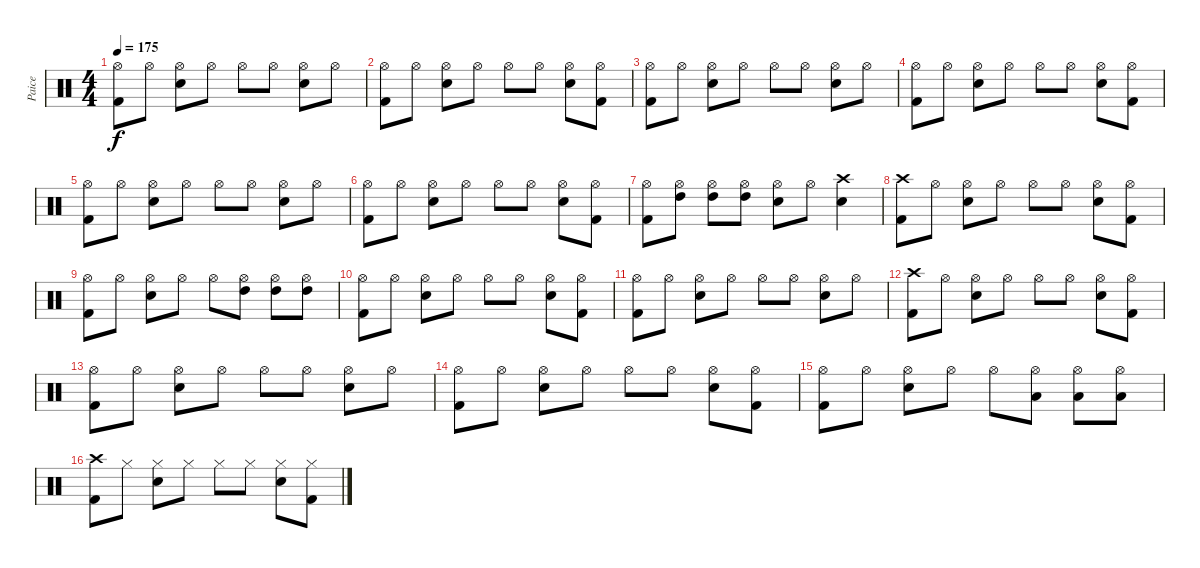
\track ("Paice" "Paice") {instrument percussion}
\staff {score}
\articulation defaults
\ts (4 4)
\tempo 175
\clef neutral
\ks c
("Hi-Hat (open)" "Kick (hit) 2").8{dy f} "Hi-Hat (open)".8 ("Hi-Hat (open)" "Electric Snare (hit)").8 "Hi-Hat (open)".8 "Hi-Hat (open)".8 "Hi-Hat (open)".8 ("Hi-Hat (open)" "Electric Snare (hit)").8 "Hi-Hat (open)".8 |
("Hi-Hat (open)" "Kick (hit) 2").8 "Hi-Hat (open)".8 ("Hi-Hat (open)" "Electric Snare (hit)").8 "Hi-Hat (open)".8 "Hi-Hat (open)".8 "Hi-Hat (open)".8 ("Hi-Hat (open)" "Electric Snare (hit)").8 ("Hi-Hat (open)" "Kick (hit) 2").8 |
("Hi-Hat (open)" "Kick (hit) 2").8 "Hi-Hat (open)".8 ("Hi-Hat (open)" "Electric Snare (hit)").8 "Hi-Hat (open)".8 "Hi-Hat (open)".8 "Hi-Hat (open)".8 ("Hi-Hat (open)" "Electric Snare (hit)").8 "Hi-Hat (open)".8 |
("Hi-Hat (open)" "Kick (hit) 2").8 "Hi-Hat (open)".8 ("Hi-Hat (open)" "Electric Snare (hit)").8 "Hi-Hat (open)".8 "Hi-Hat (open)".8 "Hi-Hat (open)".8 ("Hi-Hat (open)" "Electric Snare (hit)").8 ("Hi-Hat (open)" "Kick (hit) 2").8 |
("Hi-Hat (open)" "Kick (hit) 2").8 "Hi-Hat (open)".8 ("Hi-Hat (open)" "Electric Snare (hit)").8 "Hi-Hat (open)".8 "Hi-Hat (open)".8 "Hi-Hat (open)".8 ("Hi-Hat (open)" "Electric Snare (hit)").8 "Hi-Hat (open)".8 |
("Hi-Hat (open)" "Kick (hit) 2").8 "Hi-Hat (open)".8 ("Hi-Hat (open)" "Electric Snare (hit)").8 "Hi-Hat (open)".8 "Hi-Hat (open)".8 "Hi-Hat (open)".8 ("Hi-Hat (open)" "Electric Snare (hit)").8 ("Hi-Hat (open)" "Kick (hit) 2").8 |
("Hi-Hat (open)" "Kick (hit) 2").8 ("Hi-Hat (open)" "High Tom (hit)").8 ("Hi-Hat (open)" "High Tom (hit)").8 ("Hi-Hat (open)" "High Tom (hit)").8 ("Hi-Hat (open)" "Electric Snare (hit)").8 "Hi-Hat (open)".8 ("Crash high (hit)" "Electric Snare (hit)").4 |
("Crash high (hit)" "Kick (hit) 2").8 "Hi-Hat (open)".8 ("Hi-Hat (open)" "Electric Snare (hit)").8 "Hi-Hat (open)".8 "Hi-Hat (open)".8 "Hi-Hat (open)".8 ("Hi-Hat (open)" "Electric Snare (hit)").8 ("Hi-Hat (open)" "Kick (hit) 2").8 |
("Hi-Hat (open)" "Kick (hit) 2").8 "Hi-Hat (open)".8 ("Hi-Hat (open)" "Electric Snare (hit)").8 "Hi-Hat (open)".8 "Hi-Hat (open)".8 ("Hi-Hat (open)" "High Tom (hit)").8 ("Hi-Hat (open)" "High Tom (hit)").8 ("Hi-Hat (open)" "High Tom (hit)").8 |
("Hi-Hat (open)" "Kick (hit) 2").8 "Hi-Hat (open)".8 ("Hi-Hat (open)" "Electric Snare (hit)").8 "Hi-Hat (open)".8 "Hi-Hat (open)".8 "Hi-Hat (open)".8 ("Hi-Hat (open)" "Electric Snare (hit)").8 ("Hi-Hat (open)" "Kick (hit) 2").8 |
("Hi-Hat (open)" "Kick (hit) 2").8 "Hi-Hat (open)".8 ("Hi-Hat (open)" "Electric Snare (hit)").8 "Hi-Hat (open)".8 "Hi-Hat (open)".8 "Hi-Hat (open)".8 ("Hi-Hat (open)" "Electric Snare (hit)").8 "Hi-Hat (open)".8 |
("Crash high (hit)" "Kick (hit) 2").8 "Hi-Hat (open)".8 ("Hi-Hat (open)" "Electric Snare (hit)").8 "Hi-Hat (open)".8 "Hi-Hat (open)".8 "Hi-Hat (open)".8 ("Hi-Hat (open)" "Electric Snare (hit)").8 ("Hi-Hat (open)" "Kick (hit) 2").8 |
("Hi-Hat (open)" "Kick (hit) 2").8 "Hi-Hat (open)".8 ("Hi-Hat (open)" "Electric Snare (hit)").8 "Hi-Hat (open)".8 "Hi-Hat (open)".8 "Hi-Hat (open)".8 ("Hi-Hat (open)" "Electric Snare (hit)").8 "Hi-Hat (open)".8 |
("Hi-Hat (open)" "Kick (hit) 2").8 "Hi-Hat (open)".8 ("Hi-Hat (open)" "Electric Snare (hit)").8 "Hi-Hat (open)".8 "Hi-Hat (open)".8 "Hi-Hat (open)".8 ("Hi-Hat (open)" "Electric Snare (hit)").8 ("Hi-Hat (open)" "Kick (hit) 2").8 |
("Hi-Hat (open)" "Kick (hit) 2").8 "Hi-Hat (open)".8 ("Hi-Hat (open)" "Electric Snare (hit)").8 "Hi-Hat (open)".8 "Hi-Hat (open)".8 ("Hi-Hat (open)" "Low Tom (hit)").8 ("Hi-Hat (open)" "Low Tom (hit)").8 ("Hi-Hat (open)" "Low Tom (hit)").8 |
("Crash high (hit)" "Kick (hit) 2").8 "Hi-Hat (closed)".8 ("Hi-Hat (closed)" "Electric Snare (hit)").8 "Hi-Hat (closed)".8 "Hi-Hat (closed)".8 "Hi-Hat (closed)".8 ("Hi-Hat (closed)" "Electric Snare (hit)").8 ("Hi-Hat (closed)" "Kick (hit) 2").8
